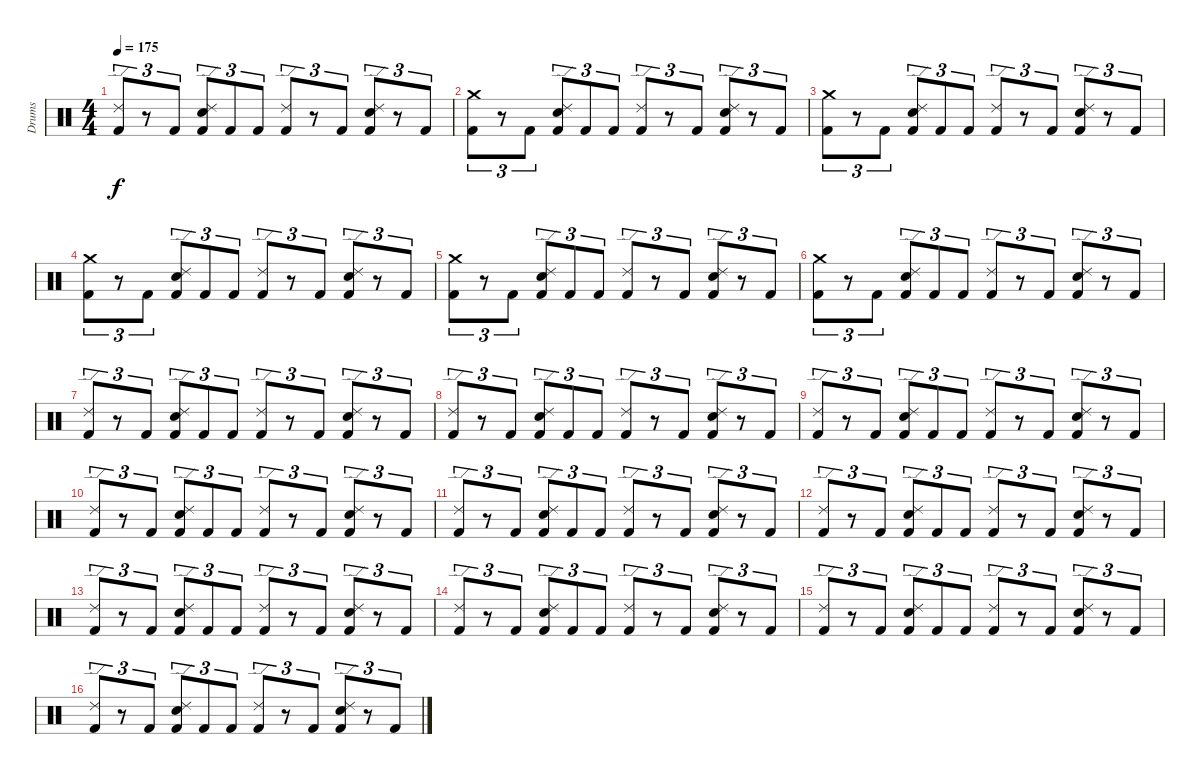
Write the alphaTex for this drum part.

\track ("Drums" "Drums") {instrument percussion}
\staff {score}
\articulation defaults
\ts (4 4)
\tempo 175
\clef neutral
\ks c
("Ride (edge) 2" "Kick (hit) 2").8{tu (3 2) dy f} r.8{tu (3 2)} "Kick (hit) 2".8{tu (3 2)} ("Ride (edge) 2" "Electric Snare (hit)" "Kick (hit) 2").8{tu (3 2)} "Kick (hit) 2".8{tu (3 2)} "Kick (hit) 2".8{tu (3 2)} ("Ride (edge) 2" "Kick (hit) 2").8{tu (3 2)} r.8{tu (3 2)} "Kick (hit) 2".8{tu (3 2)} ("Electric Snare (hit)" "Kick (hit) 2" "Ride (edge) 2").8{tu (3 2)} r.8{tu (3 2)} "Kick (hit) 2".8{tu (3 2)} |
("Crash medium (hit)" "Kick (hit) 2").8{tu (3 2)} r.8{tu (3 2)} "Kick (hit) 2".8{tu (3 2)} ("Ride (edge) 2" "Electric Snare (hit)" "Kick (hit) 2").8{tu (3 2)} "Kick (hit) 2".8{tu (3 2)} "Kick (hit) 2".8{tu (3 2)} ("Ride (edge) 2" "Kick (hit) 2").8{tu (3 2)} r.8{tu (3 2)} "Kick (hit) 2".8{tu (3 2)} ("Electric Snare (hit)" "Kick (hit) 2" "Ride (edge) 2").8{tu (3 2)} r.8{tu (3 2)} "Kick (hit) 2".8{tu (3 2)} |
("Crash medium (hit)" "Kick (hit) 2").8{tu (3 2)} r.8{tu (3 2)} "Kick (hit) 2".8{tu (3 2)} ("Ride (edge) 2" "Electric Snare (hit)" "Kick (hit) 2").8{tu (3 2)} "Kick (hit) 2".8{tu (3 2)} "Kick (hit) 2".8{tu (3 2)} ("Ride (edge) 2" "Kick (hit) 2").8{tu (3 2)} r.8{tu (3 2)} "Kick (hit) 2".8{tu (3 2)} ("Electric Snare (hit)" "Kick (hit) 2" "Ride (edge) 2").8{tu (3 2)} r.8{tu (3 2)} "Kick (hit) 2".8{tu (3 2)} |
("Crash medium (hit)" "Kick (hit) 2").8{tu (3 2)} r.8{tu (3 2)} "Kick (hit) 2".8{tu (3 2)} ("Ride (edge) 2" "Electric Snare (hit)" "Kick (hit) 2").8{tu (3 2)} "Kick (hit) 2".8{tu (3 2)} "Kick (hit) 2".8{tu (3 2)} ("Ride (edge) 2" "Kick (hit) 2").8{tu (3 2)} r.8{tu (3 2)} "Kick (hit) 2".8{tu (3 2)} ("Electric Snare (hit)" "Kick (hit) 2" "Ride (edge) 2").8{tu (3 2)} r.8{tu (3 2)} "Kick (hit) 2".8{tu (3 2)} |
("Crash medium (hit)" "Kick (hit) 2").8{tu (3 2)} r.8{tu (3 2)} "Kick (hit) 2".8{tu (3 2)} ("Ride (edge) 2" "Electric Snare (hit)" "Kick (hit) 2").8{tu (3 2)} "Kick (hit) 2".8{tu (3 2)} "Kick (hit) 2".8{tu (3 2)} ("Ride (edge) 2" "Kick (hit) 2").8{tu (3 2)} r.8{tu (3 2)} "Kick (hit) 2".8{tu (3 2)} ("Electric Snare (hit)" "Kick (hit) 2" "Ride (edge) 2").8{tu (3 2)} r.8{tu (3 2)} "Kick (hit) 2".8{tu (3 2)} |
("Crash medium (hit)" "Kick (hit) 2").8{tu (3 2)} r.8{tu (3 2)} "Kick (hit) 2".8{tu (3 2)} ("Ride (edge) 2" "Electric Snare (hit)" "Kick (hit) 2").8{tu (3 2)} "Kick (hit) 2".8{tu (3 2)} "Kick (hit) 2".8{tu (3 2)} ("Ride (edge) 2" "Kick (hit) 2").8{tu (3 2)} r.8{tu (3 2)} "Kick (hit) 2".8{tu (3 2)} ("Electric Snare (hit)" "Kick (hit) 2" "Ride (edge) 2").8{tu (3 2)} r.8{tu (3 2)} "Kick (hit) 2".8{tu (3 2)} |
("Ride (edge) 2" "Kick (hit) 2").8{tu (3 2)} r.8{tu (3 2)} "Kick (hit) 2".8{tu (3 2)} ("Ride (edge) 2" "Electric Snare (hit)" "Kick (hit) 2").8{tu (3 2)} "Kick (hit) 2".8{tu (3 2)} "Kick (hit) 2".8{tu (3 2)} ("Ride (edge) 2" "Kick (hit) 2").8{tu (3 2)} r.8{tu (3 2)} "Kick (hit) 2".8{tu (3 2)} ("Electric Snare (hit)" "Kick (hit) 2" "Ride (edge) 2").8{tu (3 2)} r.8{tu (3 2)} "Kick (hit) 2".8{tu (3 2)} |
("Ride (edge) 2" "Kick (hit) 2").8{tu (3 2)} r.8{tu (3 2)} "Kick (hit) 2".8{tu (3 2)} ("Ride (edge) 2" "Electric Snare (hit)" "Kick (hit) 2").8{tu (3 2)} "Kick (hit) 2".8{tu (3 2)} "Kick (hit) 2".8{tu (3 2)} ("Ride (edge) 2" "Kick (hit) 2").8{tu (3 2)} r.8{tu (3 2)} "Kick (hit) 2".8{tu (3 2)} ("Electric Snare (hit)" "Kick (hit) 2" "Ride (edge) 2").8{tu (3 2)} r.8{tu (3 2)} "Kick (hit) 2".8{tu (3 2)} |
("Ride (edge) 2" "Kick (hit) 2").8{tu (3 2)} r.8{tu (3 2)} "Kick (hit) 2".8{tu (3 2)} ("Ride (edge) 2" "Electric Snare (hit)" "Kick (hit) 2").8{tu (3 2)} "Kick (hit) 2".8{tu (3 2)} "Kick (hit) 2".8{tu (3 2)} ("Ride (edge) 2" "Kick (hit) 2").8{tu (3 2)} r.8{tu (3 2)} "Kick (hit) 2".8{tu (3 2)} ("Electric Snare (hit)" "Kick (hit) 2" "Ride (edge) 2").8{tu (3 2)} r.8{tu (3 2)} "Kick (hit) 2".8{tu (3 2)} |
("Ride (edge) 2" "Kick (hit) 2").8{tu (3 2)} r.8{tu (3 2)} "Kick (hit) 2".8{tu (3 2)} ("Ride (edge) 2" "Electric Snare (hit)" "Kick (hit) 2").8{tu (3 2)} "Kick (hit) 2".8{tu (3 2)} "Kick (hit) 2".8{tu (3 2)} ("Ride (edge) 2" "Kick (hit) 2").8{tu (3 2)} r.8{tu (3 2)} "Kick (hit) 2".8{tu (3 2)} ("Electric Snare (hit)" "Kick (hit) 2" "Ride (edge) 2").8{tu (3 2)} r.8{tu (3 2)} "Kick (hit) 2".8{tu (3 2)} |
("Ride (edge) 2" "Kick (hit) 2").8{tu (3 2)} r.8{tu (3 2)} "Kick (hit) 2".8{tu (3 2)} ("Ride (edge) 2" "Electric Snare (hit)" "Kick (hit) 2").8{tu (3 2)} "Kick (hit) 2".8{tu (3 2)} "Kick (hit) 2".8{tu (3 2)} ("Ride (edge) 2" "Kick (hit) 2").8{tu (3 2)} r.8{tu (3 2)} "Kick (hit) 2".8{tu (3 2)} ("Electric Snare (hit)" "Kick (hit) 2" "Ride (edge) 2").8{tu (3 2)} r.8{tu (3 2)} "Kick (hit) 2".8{tu (3 2)} |
("Ride (edge) 2" "Kick (hit) 2").8{tu (3 2)} r.8{tu (3 2)} "Kick (hit) 2".8{tu (3 2)} ("Ride (edge) 2" "Electric Snare (hit)" "Kick (hit) 2").8{tu (3 2)} "Kick (hit) 2".8{tu (3 2)} "Kick (hit) 2".8{tu (3 2)} ("Ride (edge) 2" "Kick (hit) 2").8{tu (3 2)} r.8{tu (3 2)} "Kick (hit) 2".8{tu (3 2)} ("Electric Snare (hit)" "Kick (hit) 2" "Ride (edge) 2").8{tu (3 2)} r.8{tu (3 2)} "Kick (hit) 2".8{tu (3 2)} |
("Ride (edge) 2" "Kick (hit) 2").8{tu (3 2)} r.8{tu (3 2)} "Kick (hit) 2".8{tu (3 2)} ("Ride (edge) 2" "Electric Snare (hit)" "Kick (hit) 2").8{tu (3 2)} "Kick (hit) 2".8{tu (3 2)} "Kick (hit) 2".8{tu (3 2)} ("Ride (edge) 2" "Kick (hit) 2").8{tu (3 2)} r.8{tu (3 2)} "Kick (hit) 2".8{tu (3 2)} ("Electric Snare (hit)" "Kick (hit) 2" "Ride (edge) 2").8{tu (3 2)} r.8{tu (3 2)} "Kick (hit) 2".8{tu (3 2)} |
("Ride (edge) 2" "Kick (hit) 2").8{tu (3 2)} r.8{tu (3 2)} "Kick (hit) 2".8{tu (3 2)} ("Ride (edge) 2" "Electric Snare (hit)" "Kick (hit) 2").8{tu (3 2)} "Kick (hit) 2".8{tu (3 2)} "Kick (hit) 2".8{tu (3 2)} ("Ride (edge) 2" "Kick (hit) 2").8{tu (3 2)} r.8{tu (3 2)} "Kick (hit) 2".8{tu (3 2)} ("Electric Snare (hit)" "Kick (hit) 2" "Ride (edge) 2").8{tu (3 2)} r.8{tu (3 2)} "Kick (hit) 2".8{tu (3 2)} |
("Ride (edge) 2" "Kick (hit) 2").8{tu (3 2)} r.8{tu (3 2)} "Kick (hit) 2".8{tu (3 2)} ("Ride (edge) 2" "Electric Snare (hit)" "Kick (hit) 2").8{tu (3 2)} "Kick (hit) 2".8{tu (3 2)} "Kick (hit) 2".8{tu (3 2)} ("Ride (edge) 2" "Kick (hit) 2").8{tu (3 2)} r.8{tu (3 2)} "Kick (hit) 2".8{tu (3 2)} ("Electric Snare (hit)" "Kick (hit) 2" "Ride (edge) 2").8{tu (3 2)} r.8{tu (3 2)} "Kick (hit) 2".8{tu (3 2)} |
("Ride (edge) 2" "Kick (hit) 2").8{tu (3 2)} r.8{tu (3 2)} "Kick (hit) 2".8{tu (3 2)} ("Ride (edge) 2" "Electric Snare (hit)" "Kick (hit) 2").8{tu (3 2)} "Kick (hit) 2".8{tu (3 2)} "Kick (hit) 2".8{tu (3 2)} ("Ride (edge) 2" "Kick (hit) 2").8{tu (3 2)} r.8{tu (3 2)} "Kick (hit) 2".8{tu (3 2)} ("Electric Snare (hit)" "Kick (hit) 2" "Ride (edge) 2").8{tu (3 2)} r.8{tu (3 2)} "Kick (hit) 2".8{tu (3 2)}
